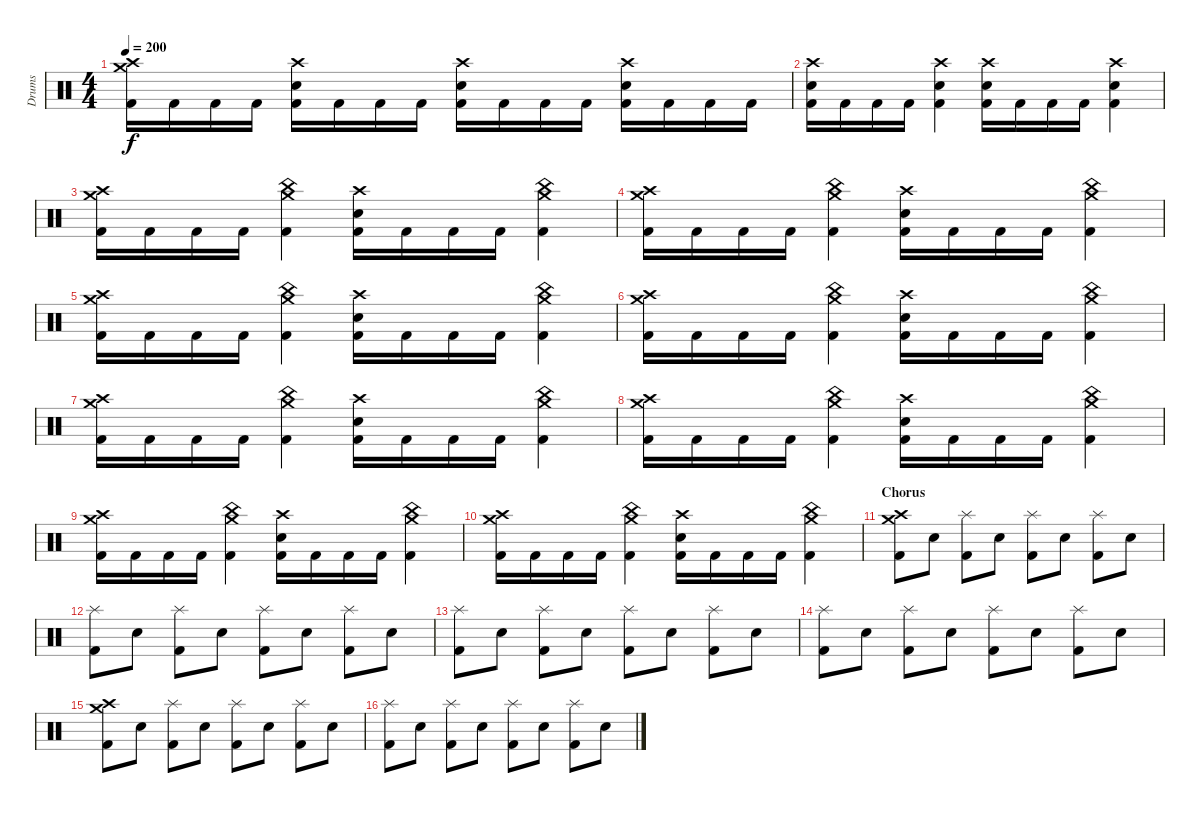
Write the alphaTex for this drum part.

\track ("Drums" "Drums") {instrument percussion}
\staff {score}
\articulation defaults
\ts (4 4)
\tempo 200
\clef neutral
\ks c
("Crash medium (hit)" "Crash high (hit)" "Kick (hit) 2").16{dy f} "Kick (hit) 2".16 "Kick (hit) 2".16 "Kick (hit) 2".16 ("Crash high (hit)" "Snare (hit) 2" "Kick (hit) 2").16 "Kick (hit) 2".16 "Kick (hit) 2".16 "Kick (hit) 2".16 ("Crash high (hit)" "Snare (hit) 2" "Kick (hit) 2").16 "Kick (hit) 2".16 "Kick (hit) 2".16 "Kick (hit) 2".16 ("Crash high (hit)" "Snare (hit) 2" "Kick (hit) 2").16 "Kick (hit) 2".16 "Kick (hit) 2".16 "Kick (hit) 2".16 |
("Crash high (hit)" "Snare (hit) 2" "Kick (hit) 2").16 "Kick (hit) 2".16 "Kick (hit) 2".16 "Kick (hit) 2".16 ("Crash high (hit)" "Snare (hit) 2" "Kick (hit) 2").4 ("Crash high (hit)" "Snare (hit) 2" "Kick (hit) 2").16 "Kick (hit) 2".16 "Kick (hit) 2".16 "Kick (hit) 2".16 ("Crash high (hit)" "Snare (hit) 2" "Kick (hit) 2").4 |
("Crash medium (hit)" "Crash high (hit)" "Kick (hit) 2").16 "Kick (hit) 2".16 "Kick (hit) 2".16 "Kick (hit) 2".16 ("Crash medium (hit)" "China (hit)" "Kick (hit) 2").4 ("Crash high (hit)" "Snare (hit) 2" "Kick (hit) 2").16 "Kick (hit) 2".16 "Kick (hit) 2".16 "Kick (hit) 2".16 ("Crash medium (hit)" "China (hit)" "Kick (hit) 2").4 |
("Crash medium (hit)" "Crash high (hit)" "Kick (hit) 2").16 "Kick (hit) 2".16 "Kick (hit) 2".16 "Kick (hit) 2".16 ("Crash medium (hit)" "China (hit)" "Kick (hit) 2").4 ("Crash high (hit)" "Snare (hit) 2" "Kick (hit) 2").16 "Kick (hit) 2".16 "Kick (hit) 2".16 "Kick (hit) 2".16 ("Crash medium (hit)" "China (hit)" "Kick (hit) 2").4 |
("Crash medium (hit)" "Crash high (hit)" "Kick (hit) 2").16 "Kick (hit) 2".16 "Kick (hit) 2".16 "Kick (hit) 2".16 ("Crash medium (hit)" "China (hit)" "Kick (hit) 2").4 ("Crash high (hit)" "Snare (hit) 2" "Kick (hit) 2").16 "Kick (hit) 2".16 "Kick (hit) 2".16 "Kick (hit) 2".16 ("Crash medium (hit)" "China (hit)" "Kick (hit) 2").4 |
("Crash medium (hit)" "Crash high (hit)" "Kick (hit) 2").16 "Kick (hit) 2".16 "Kick (hit) 2".16 "Kick (hit) 2".16 ("Crash medium (hit)" "China (hit)" "Kick (hit) 2").4 ("Crash high (hit)" "Snare (hit) 2" "Kick (hit) 2").16 "Kick (hit) 2".16 "Kick (hit) 2".16 "Kick (hit) 2".16 ("Crash medium (hit)" "China (hit)" "Kick (hit) 2").4 |
("Crash medium (hit)" "Crash high (hit)" "Kick (hit) 2").16 "Kick (hit) 2".16 "Kick (hit) 2".16 "Kick (hit) 2".16 ("Crash medium (hit)" "China (hit)" "Kick (hit) 2").4 ("Crash high (hit)" "Snare (hit) 2" "Kick (hit) 2").16 "Kick (hit) 2".16 "Kick (hit) 2".16 "Kick (hit) 2".16 ("Crash medium (hit)" "China (hit)" "Kick (hit) 2").4 |
("Crash medium (hit)" "Crash high (hit)" "Kick (hit) 2").16 "Kick (hit) 2".16 "Kick (hit) 2".16 "Kick (hit) 2".16 ("Crash medium (hit)" "China (hit)" "Kick (hit) 2").4 ("Crash high (hit)" "Snare (hit) 2" "Kick (hit) 2").16 "Kick (hit) 2".16 "Kick (hit) 2".16 "Kick (hit) 2".16 ("Crash medium (hit)" "China (hit)" "Kick (hit) 2").4 |
("Crash medium (hit)" "Crash high (hit)" "Kick (hit) 2").16 "Kick (hit) 2".16 "Kick (hit) 2".16 "Kick (hit) 2".16 ("Crash medium (hit)" "China (hit)" "Kick (hit) 2").4 ("Crash high (hit)" "Snare (hit) 2" "Kick (hit) 2").16 "Kick (hit) 2".16 "Kick (hit) 2".16 "Kick (hit) 2".16 ("Crash medium (hit)" "China (hit)" "Kick (hit) 2").4 |
("Crash medium (hit)" "Crash high (hit)" "Kick (hit) 2").16 "Kick (hit) 2".16 "Kick (hit) 2".16 "Kick (hit) 2".16 ("Crash medium (hit)" "China (hit)" "Kick (hit) 2").4 ("Crash high (hit)" "Snare (hit) 2" "Kick (hit) 2").16 "Kick (hit) 2".16 "Kick (hit) 2".16 "Kick (hit) 2".16 ("Crash medium (hit)" "China (hit)" "Kick (hit) 2").4 |
\section ("" "Chorus")
("Crash medium (hit)" "Crash high (hit)" "Kick (hit) 2").8 "Snare (hit) 2".8 ("Splash (hit)" "Kick (hit) 2").8 "Snare (hit) 2".8 ("Splash (hit)" "Kick (hit) 2").8 "Snare (hit) 2".8 ("Splash (hit)" "Kick (hit) 2").8 "Snare (hit) 2".8 |
("Splash (hit)" "Kick (hit) 2").8 "Snare (hit) 2".8 ("Splash (hit)" "Kick (hit) 2").8 "Snare (hit) 2".8 ("Splash (hit)" "Kick (hit) 2").8 "Snare (hit) 2".8 ("Splash (hit)" "Kick (hit) 2").8 "Snare (hit) 2".8 |
("Splash (hit)" "Kick (hit) 2").8 "Snare (hit) 2".8 ("Splash (hit)" "Kick (hit) 2").8 "Snare (hit) 2".8 ("Splash (hit)" "Kick (hit) 2").8 "Snare (hit) 2".8 ("Splash (hit)" "Kick (hit) 2").8 "Snare (hit) 2".8 |
("Splash (hit)" "Kick (hit) 2").8 "Snare (hit) 2".8 ("Splash (hit)" "Kick (hit) 2").8 "Snare (hit) 2".8 ("Splash (hit)" "Kick (hit) 2").8 "Snare (hit) 2".8 ("Splash (hit)" "Kick (hit) 2").8 "Snare (hit) 2".8 |
("Crash medium (hit)" "Crash high (hit)" "Kick (hit) 2").8 "Snare (hit) 2".8 ("Splash (hit)" "Kick (hit) 2").8 "Snare (hit) 2".8 ("Splash (hit)" "Kick (hit) 2").8 "Snare (hit) 2".8 ("Splash (hit)" "Kick (hit) 2").8 "Snare (hit) 2".8 |
("Splash (hit)" "Kick (hit) 2").8 "Snare (hit) 2".8 ("Splash (hit)" "Kick (hit) 2").8 "Snare (hit) 2".8 ("Splash (hit)" "Kick (hit) 2").8 "Snare (hit) 2".8 ("Splash (hit)" "Kick (hit) 2").8 "Snare (hit) 2".8
